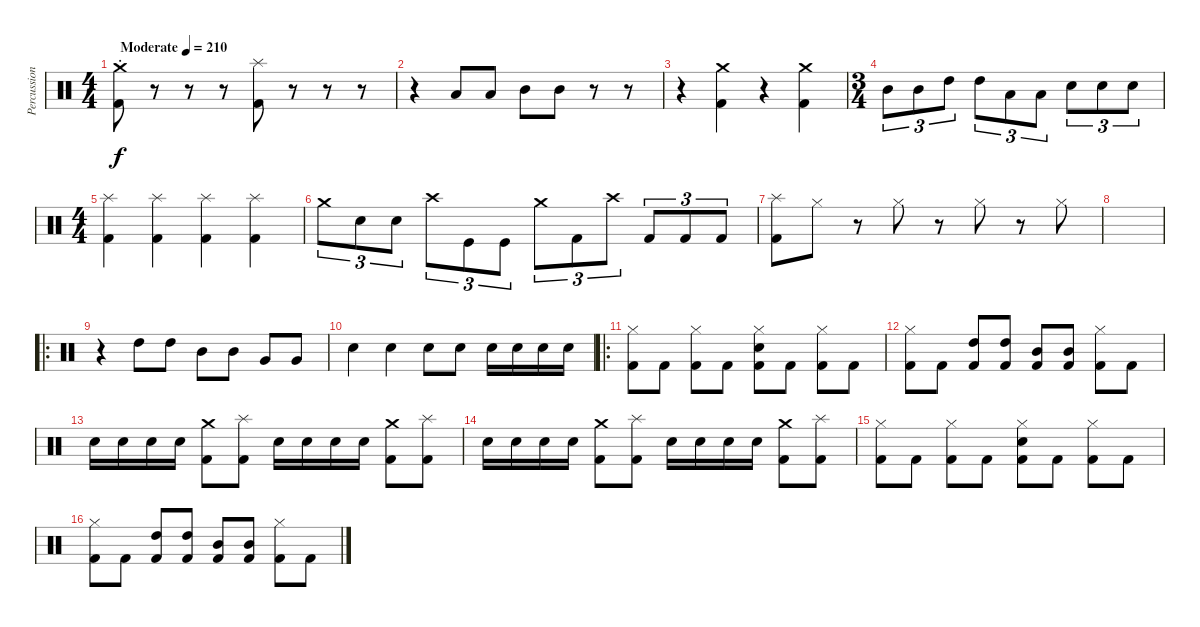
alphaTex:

\track ("Percussion" "Percussion") {instrument percussion}
\staff {score}
\articulation defaults
\ts (4 4)
\tempo (210 "Moderate")
\clef neutral
\ks c
("Kick (hit) 2" "Crash medium (hit)"{st}).8{dy f} r.8 r.8 r.8 ("Kick (hit) 2" "Splash (hit)").8 r.8 r.8 r.8 |
r.4 "Low Tom (hit)".8 "Low Tom (hit)".8 "Mid Tom (hit)".8 "Mid Tom (hit)".8 r.8 r.8 |
r.4 ("Kick (hit) 2" "Crash medium (hit)").4 r.4 ("Crash medium (hit)" "Kick (hit) 2").4 |
\ts (3 4)
"Mid Tom (hit)".8{tu (3 2)} "Mid Tom (hit)".8{tu (3 2)} "High Tom (hit)".8{tu (3 2)} "High Tom (hit)".8{tu (3 2)} "Low Tom (hit)".8{tu (3 2)} "Low Tom (hit)".8{tu (3 2)} "Snare (hit) 2".8{tu (3 2)} "Snare (hit) 2".8{tu (3 2)} "Snare (hit) 2".8{tu (3 2)} |
\ts (4 4)
("Splash (hit)" "Kick (hit) 2").4 ("Splash (hit)" "Kick (hit) 2").4 ("Splash (hit)" "Kick (hit) 2").4 ("Splash (hit)" "Kick (hit) 2").4 |
"Crash medium (hit)".8{tu (3 2)} "Snare (hit) 2".8{tu (3 2)} "Snare (hit) 2".8{tu (3 2)} "Crash high (hit)".8{tu (3 2)} "Kick (hit)".8{tu (3 2)} "Kick (hit)".8{tu (3 2)} "Crash medium (hit)".8{tu (3 2)} "Kick (hit) 2".8{tu (3 2)} "Crash high (hit)".8{tu (3 2)} "Kick (hit) 2".8{tu (3 2)} "Kick (hit) 2".8{tu (3 2)} "Kick (hit) 2".8{tu (3 2)} |
("Splash (hit)" "Kick (hit) 2").8 "Hi-Hat (closed)".8 r.8 "Hi-Hat (closed)".8 r.8 "Hi-Hat (closed)".8 r.8 "Hi-Hat (closed)".8 |
|
\ro
r.4 "High Tom (hit)".8 "High Tom (hit)".8 "Mid Tom (hit)".8 "Mid Tom (hit)".8 "Very Low Tom (hit)".8 "Very Low Tom (hit)".8 |
"Snare (hit) 2".4 "Snare (hit) 2".4 "Snare (hit) 2".8 "Snare (hit) 2".8 "Snare (hit) 2".16 "Snare (hit) 2".16 "Snare (hit) 2".16 "Snare (hit) 2".16 |
\ro
("Hi-Hat (closed)" "Kick (hit) 2").8 "Kick (hit) 2".8 ("Hi-Hat (closed)" "Kick (hit) 2").8 "Kick (hit) 2".8 ("Hi-Hat (closed)" "Snare (hit) 2" "Kick (hit) 2").8 "Kick (hit) 2".8 ("Hi-Hat (closed)" "Kick (hit) 2").8 "Kick (hit) 2".8 |
("Hi-Hat (closed)" "Kick (hit) 2").8 "Kick (hit) 2".8 ("High Tom (hit)" "Kick (hit) 2").8 ("High Tom (hit)" "Kick (hit) 2").8 ("Mid Tom (hit)" "Kick (hit) 2").8 ("Mid Tom (hit)" "Kick (hit) 2").8 ("Hi-Hat (closed)" "Kick (hit) 2").8 "Kick (hit) 2".8 |
"Snare (hit) 2".16 "Snare (hit) 2".16 "Snare (hit) 2".16 "Snare (hit) 2".16 ("Kick (hit) 2" "Crash medium (hit)").8 ("Kick (hit) 2" "Splash (hit)").8 "Snare (hit) 2".16 "Snare (hit) 2".16 "Snare (hit) 2".16 "Snare (hit) 2".16 ("Kick (hit) 2" "Crash medium (hit)").8 ("Kick (hit) 2" "Splash (hit)").8 |
"Snare (hit) 2".16 "Snare (hit) 2".16 "Snare (hit) 2".16 "Snare (hit) 2".16 ("Kick (hit) 2" "Crash medium (hit)").8 ("Kick (hit) 2" "Splash (hit)").8 "Snare (hit) 2".16 "Snare (hit) 2".16 "Snare (hit) 2".16 "Snare (hit) 2".16 ("Kick (hit) 2" "Crash medium (hit)").8 ("Kick (hit) 2" "Splash (hit)").8 |
("Hi-Hat (closed)" "Kick (hit) 2").8 "Kick (hit) 2".8 ("Hi-Hat (closed)" "Kick (hit) 2").8 "Kick (hit) 2".8 ("Hi-Hat (closed)" "Snare (hit) 2" "Kick (hit) 2").8 "Kick (hit) 2".8 ("Hi-Hat (closed)" "Kick (hit) 2").8 "Kick (hit) 2".8 |
("Hi-Hat (closed)" "Kick (hit) 2").8 "Kick (hit) 2".8 ("High Tom (hit)" "Kick (hit) 2").8 ("High Tom (hit)" "Kick (hit) 2").8 ("Mid Tom (hit)" "Kick (hit) 2").8 ("Mid Tom (hit)" "Kick (hit) 2").8 ("Hi-Hat (closed)" "Kick (hit) 2").8 "Kick (hit) 2".8
